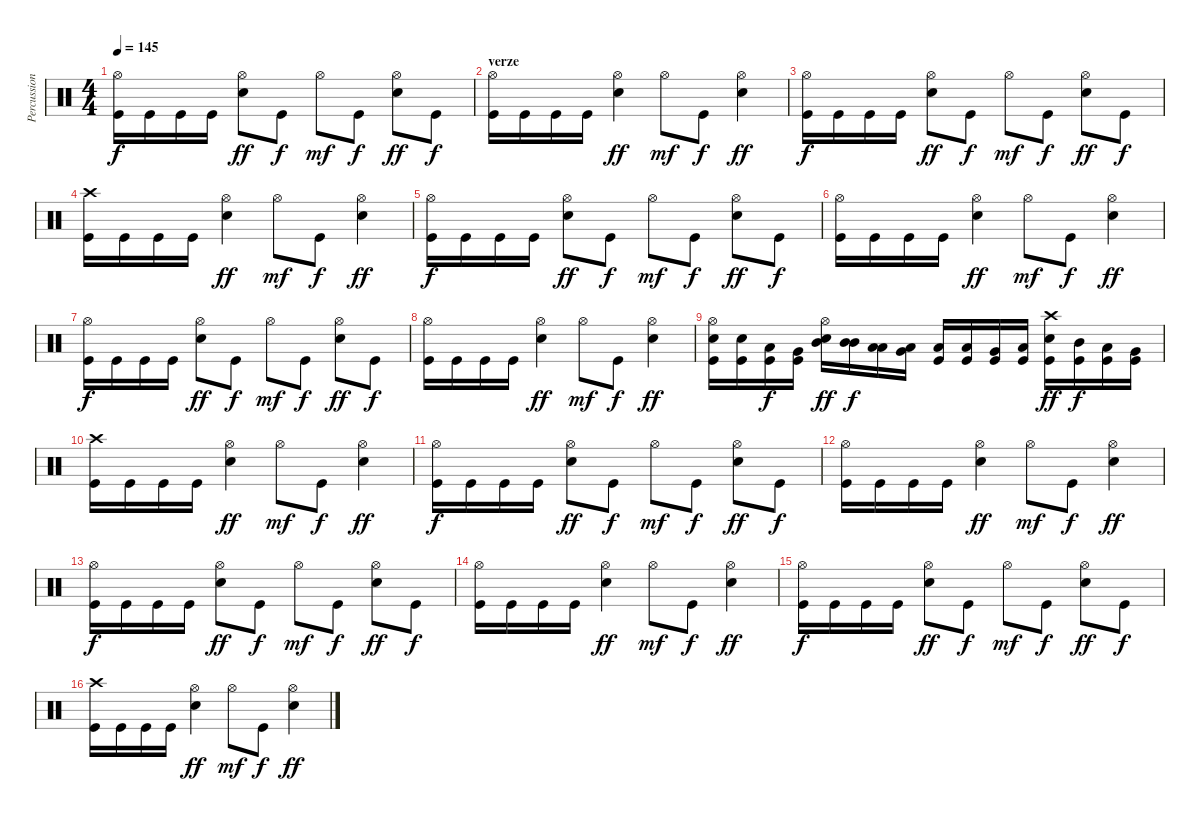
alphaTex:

\track ("Percussion" "Percussion") {instrument percussion}
\staff {score}
\articulation defaults
\ts (4 4)
\tempo 145
\clef neutral
\ks c
("Hi-Hat (open)" "Kick (hit)").16{dy f} "Kick (hit)".16 "Kick (hit)".16 "Kick (hit)".16 ("Hi-Hat (open)" "Snare (hit) 2").8{dy ff} "Kick (hit)".8{dy f} "Hi-Hat (open)".8{dy mf} "Kick (hit)".8{dy f} ("Hi-Hat (open)" "Snare (hit) 2").8{dy ff} "Kick (hit)".8{dy f} |
\section ("" "verze")
("Hi-Hat (open)" "Kick (hit)").16 "Kick (hit)".16 "Kick (hit)".16 "Kick (hit)".16 ("Hi-Hat (open)" "Snare (hit) 2").4{dy ff} "Hi-Hat (open)".8{dy mf} "Kick (hit)".8{dy f} ("Hi-Hat (open)" "Snare (hit) 2").4{dy ff} |
("Hi-Hat (open)" "Kick (hit)").16{dy f} "Kick (hit)".16 "Kick (hit)".16 "Kick (hit)".16 ("Hi-Hat (open)" "Snare (hit) 2").8{dy ff} "Kick (hit)".8{dy f} "Hi-Hat (open)".8{dy mf} "Kick (hit)".8{dy f} ("Hi-Hat (open)" "Snare (hit) 2").8{dy ff} "Kick (hit)".8{dy f} |
("Crash high (hit)" "Kick (hit)").16 "Kick (hit)".16 "Kick (hit)".16 "Kick (hit)".16 ("Hi-Hat (open)" "Snare (hit) 2").4{dy ff} "Hi-Hat (open)".8{dy mf} "Kick (hit)".8{dy f} ("Hi-Hat (open)" "Snare (hit) 2").4{dy ff} |
("Hi-Hat (open)" "Kick (hit)").16{dy f} "Kick (hit)".16 "Kick (hit)".16 "Kick (hit)".16 ("Hi-Hat (open)" "Snare (hit) 2").8{dy ff} "Kick (hit)".8{dy f} "Hi-Hat (open)".8{dy mf} "Kick (hit)".8{dy f} ("Hi-Hat (open)" "Snare (hit) 2").8{dy ff} "Kick (hit)".8{dy f} |
("Hi-Hat (open)" "Kick (hit)").16 "Kick (hit)".16 "Kick (hit)".16 "Kick (hit)".16 ("Hi-Hat (open)" "Snare (hit) 2").4{dy ff} "Hi-Hat (open)".8{dy mf} "Kick (hit)".8{dy f} ("Hi-Hat (open)" "Snare (hit) 2").4{dy ff} |
("Hi-Hat (open)" "Kick (hit)").16{dy f} "Kick (hit)".16 "Kick (hit)".16 "Kick (hit)".16 ("Hi-Hat (open)" "Snare (hit) 2").8{dy ff} "Kick (hit)".8{dy f} "Hi-Hat (open)".8{dy mf} "Kick (hit)".8{dy f} ("Hi-Hat (open)" "Snare (hit) 2").8{dy ff} "Kick (hit)".8{dy f} |
("Hi-Hat (open)" "Kick (hit)").16 "Kick (hit)".16 "Kick (hit)".16 "Kick (hit)".16 ("Hi-Hat (open)" "Snare (hit) 2").4{dy ff} "Hi-Hat (open)".8{dy mf} "Kick (hit)".8{dy f} ("Hi-Hat (open)" "Snare (hit) 2").4{dy ff} |
("Hi-Hat (open)" "Kick (hit)" "Snare (hit) 2").16 ("Kick (hit)" "Snare (hit) 2").16 ("Kick (hit)" "Low Tom (hit)").16{dy f} ("Kick (hit)" "Very Low Tom (hit)").16 ("Hi-Hat (open)" "Mid Tom (hit)" "Snare (hit) 2").16{dy ff} ("Mid Tom (hit)" "Mid Tom (hit)").16{dy f} ("Low Tom (hit)" "Low Tom (hit)").16 ("Low Tom (hit)" "Very Low Tom (hit)").16 ("Low Tom (hit)" "Kick (hit)").16 ("Low Tom (hit)" "Kick (hit)").16 ("Very Low Tom (hit)" "Kick (hit)").16 ("Low Floor Tom (hit)" "Kick (hit)").16 ("Crash high (hit)" "Kick (hit)" "Snare (hit) 2").16{dy ff} ("Kick (hit)" "Mid Tom (hit)").16{dy f} ("Kick (hit)" "Low Tom (hit)").16 ("Kick (hit)" "Very Low Tom (hit)").16 |
("Crash high (hit)" "Kick (hit)").16 "Kick (hit)".16 "Kick (hit)".16 "Kick (hit)".16 ("Hi-Hat (open)" "Snare (hit) 2").4{dy ff} "Hi-Hat (open)".8{dy mf} "Kick (hit)".8{dy f} ("Hi-Hat (open)" "Snare (hit) 2").4{dy ff} |
("Hi-Hat (open)" "Kick (hit)").16{dy f} "Kick (hit)".16 "Kick (hit)".16 "Kick (hit)".16 ("Hi-Hat (open)" "Snare (hit) 2").8{dy ff} "Kick (hit)".8{dy f} "Hi-Hat (open)".8{dy mf} "Kick (hit)".8{dy f} ("Hi-Hat (open)" "Snare (hit) 2").8{dy ff} "Kick (hit)".8{dy f} |
("Hi-Hat (open)" "Kick (hit)").16 "Kick (hit)".16 "Kick (hit)".16 "Kick (hit)".16 ("Hi-Hat (open)" "Snare (hit) 2").4{dy ff} "Hi-Hat (open)".8{dy mf} "Kick (hit)".8{dy f} ("Hi-Hat (open)" "Snare (hit) 2").4{dy ff} |
("Hi-Hat (open)" "Kick (hit)").16{dy f} "Kick (hit)".16 "Kick (hit)".16 "Kick (hit)".16 ("Hi-Hat (open)" "Snare (hit) 2").8{dy ff} "Kick (hit)".8{dy f} "Hi-Hat (open)".8{dy mf} "Kick (hit)".8{dy f} ("Hi-Hat (open)" "Snare (hit) 2").8{dy ff} "Kick (hit)".8{dy f} |
("Hi-Hat (open)" "Kick (hit)").16 "Kick (hit)".16 "Kick (hit)".16 "Kick (hit)".16 ("Hi-Hat (open)" "Snare (hit) 2").4{dy ff} "Hi-Hat (open)".8{dy mf} "Kick (hit)".8{dy f} ("Hi-Hat (open)" "Snare (hit) 2").4{dy ff} |
("Hi-Hat (open)" "Kick (hit)").16{dy f} "Kick (hit)".16 "Kick (hit)".16 "Kick (hit)".16 ("Hi-Hat (open)" "Snare (hit) 2").8{dy ff} "Kick (hit)".8{dy f} "Hi-Hat (open)".8{dy mf} "Kick (hit)".8{dy f} ("Hi-Hat (open)" "Snare (hit) 2").8{dy ff} "Kick (hit)".8{dy f} |
("Crash high (hit)" "Kick (hit)").16 "Kick (hit)".16 "Kick (hit)".16 "Kick (hit)".16 ("Hi-Hat (open)" "Snare (hit) 2").4{dy ff} "Hi-Hat (open)".8{dy mf} "Kick (hit)".8{dy f} ("Hi-Hat (open)" "Snare (hit) 2").4{dy ff}
